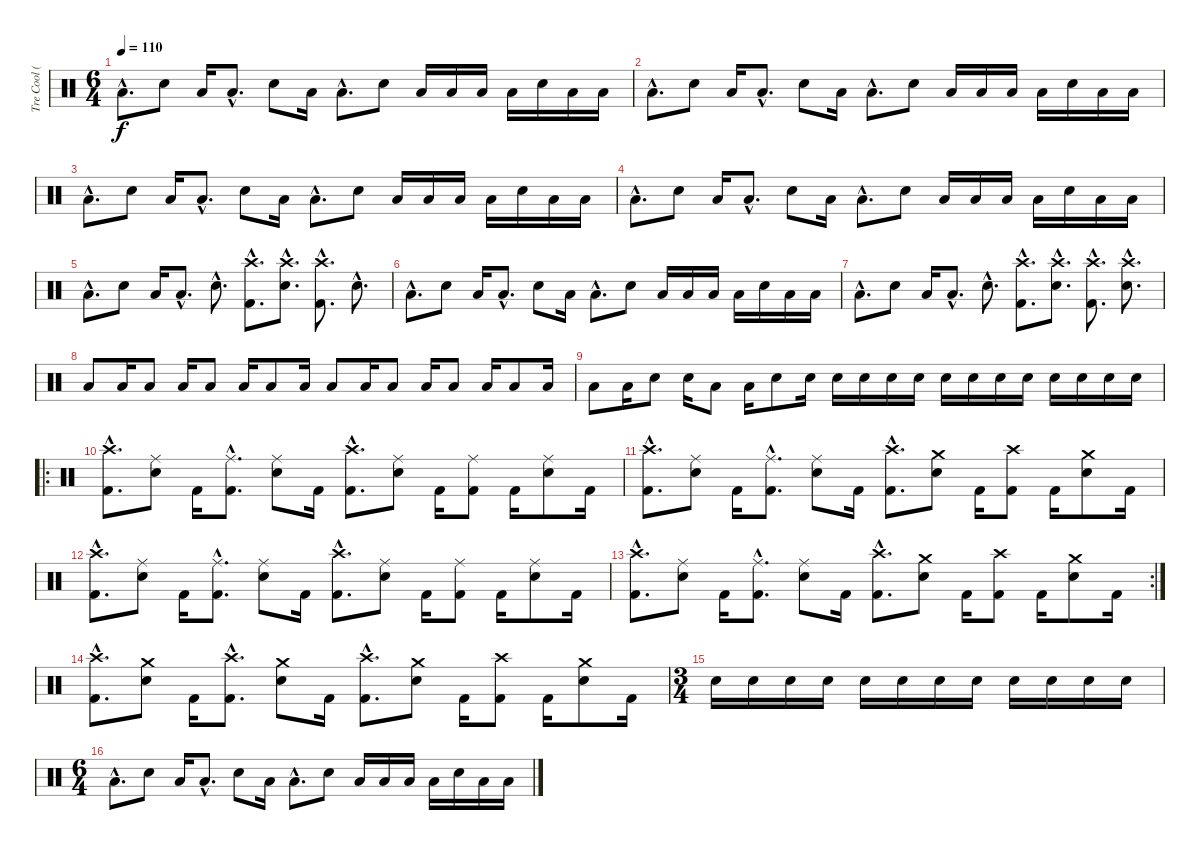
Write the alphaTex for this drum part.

\track ("Tre Cool (Drums)" "Tre Cool (") {instrument percussion}
\staff {score}
\articulation defaults
\ts (6 4)
\tempo 110
\clef neutral
\ks c "Low Floor Tom (hit)"{hac}.8{d dy f} "Electric Snare (hit)".8 "Low Floor Tom (hit)".16 "Low Floor Tom (hit)"{hac}.8{d} "Electric Snare (hit)".8 "Low Floor Tom (hit)".16 "Low Floor Tom (hit)"{hac}.8{d} "Electric Snare (hit)".8 "Low Floor Tom (hit)".16 "Low Floor Tom (hit)".16 "Low Floor Tom (hit)".16 "Low Floor Tom (hit)".16 "Electric Snare (hit)".16 "Low Floor Tom (hit)".16 "Low Floor Tom (hit)".16
|
"Low Floor Tom (hit)"{hac}.8{d} "Electric Snare (hit)".8 "Low Floor Tom (hit)".16 "Low Floor Tom (hit)"{hac}.8{d} "Electric Snare (hit)".8 "Low Floor Tom (hit)".16 "Low Floor Tom (hit)"{hac}.8{d} "Electric Snare (hit)".8 "Low Floor Tom (hit)".16 "Low Floor Tom (hit)".16 "Low Floor Tom (hit)".16 "Low Floor Tom (hit)".16 "Electric Snare (hit)".16 "Low Floor Tom (hit)".16 "Low Floor Tom (hit)".16 |
"Low Floor Tom (hit)"{hac}.8{d} "Electric Snare (hit)".8 "Low Floor Tom (hit)".16 "Low Floor Tom (hit)"{hac}.8{d} "Electric Snare (hit)".8 "Low Floor Tom (hit)".16 "Low Floor Tom (hit)"{hac}.8{d} "Electric Snare (hit)".8 "Low Floor Tom (hit)".16 "Low Floor Tom (hit)".16 "Low Floor Tom (hit)".16 "Low Floor Tom (hit)".16 "Electric Snare (hit)".16 "Low Floor Tom (hit)".16 "Low Floor Tom (hit)".16 |
"Low Floor Tom (hit)"{hac}.8{d} "Electric Snare (hit)".8 "Low Floor Tom (hit)".16 "Low Floor Tom (hit)"{hac}.8{d} "Electric Snare (hit)".8 "Low Floor Tom (hit)".16 "Low Floor Tom (hit)"{hac}.8{d} "Electric Snare (hit)".8 "Low Floor Tom (hit)".16 "Low Floor Tom (hit)".16 "Low Floor Tom (hit)".16 "Low Floor Tom (hit)".16 "Electric Snare (hit)".16 "Low Floor Tom (hit)".16 "Low Floor Tom (hit)".16 |
"Low Floor Tom (hit)"{hac}.8{d} "Electric Snare (hit)".8 "Low Floor Tom (hit)".16 "Low Floor Tom (hit)"{hac}.8{d} "Electric Snare (hit)"{hac}.8{d} ("Crash high (hit)"{hac} "Kick (hit) 2"{hac}).8{d} ("Crash high (hit)"{hac} "Electric Snare (hit)"{hac}).8{d} ("Crash high (hit)"{hac} "Kick (hit) 2"{hac}).8{d} "Electric Snare (hit)"{hac}.8{d} |
"Low Floor Tom (hit)"{hac}.8{d} "Electric Snare (hit)".8 "Low Floor Tom (hit)".16 "Low Floor Tom (hit)"{hac}.8{d} "Electric Snare (hit)".8 "Low Floor Tom (hit)".16 "Low Floor Tom (hit)"{hac}.8{d} "Electric Snare (hit)".8 "Low Floor Tom (hit)".16 "Low Floor Tom (hit)".16 "Low Floor Tom (hit)".16 "Low Floor Tom (hit)".16 "Electric Snare (hit)".16 "Low Floor Tom (hit)".16 "Low Floor Tom (hit)".16 |
"Low Floor Tom (hit)"{hac}.8{d} "Electric Snare (hit)".8 "Low Floor Tom (hit)".16 "Low Floor Tom (hit)"{hac}.8{d} "Electric Snare (hit)"{hac}.8{d} ("Crash high (hit)"{hac} "Kick (hit) 2"{hac}).8{d} ("Crash high (hit)"{hac} "Electric Snare (hit)"{hac}).8{d} ("Crash high (hit)"{hac} "Kick (hit) 2"{hac}).8{d} ("Crash high (hit)"{hac} "Electric Snare (hit)"{hac}).8{d} |
"Low Floor Tom (hit)".8 "Low Floor Tom (hit)".16 "Low Floor Tom (hit)".8 "Low Floor Tom (hit)".16 "Low Floor Tom (hit)".8 "Low Floor Tom (hit)".16 "Low Floor Tom (hit)".8 "Low Floor Tom (hit)".16 "Low Floor Tom (hit)".8 "Low Floor Tom (hit)".16 "Low Floor Tom (hit)".8 "Low Floor Tom (hit)".16 "Low Floor Tom (hit)".8 "Low Floor Tom (hit)".16 "Low Floor Tom (hit)".8 "Low Floor Tom (hit)".16 |
"Low Floor Tom (hit)".8 "Low Floor Tom (hit)".16 "Electric Snare (hit)".8 "Electric Snare (hit)".16 "Low Floor Tom (hit)".8 "Low Floor Tom (hit)".16 "Electric Snare (hit)".8 "Electric Snare (hit)".16 "Electric Snare (hit)".16 "Electric Snare (hit)".16 "Electric Snare (hit)".16 "Electric Snare (hit)".16 "Electric Snare (hit)".16 "Electric Snare (hit)".16 "Electric Snare (hit)".16 "Electric Snare (hit)".16 "Electric Snare (hit)".16 "Electric Snare (hit)".16 "Electric Snare (hit)".16 "Electric Snare (hit)".16 |
\ro
("Crash high (hit)"{hac} "Kick (hit) 2"{hac}).8{d} ("Ride (middle)" "Electric Snare (hit)").8 "Kick (hit) 2".16 ("Ride (middle)"{hac} "Kick (hit) 2"{hac}).8{d} ("Ride (middle)" "Electric Snare (hit)").8 "Kick (hit) 2".16 ("Crash high (hit)"{hac} "Kick (hit) 2"{hac}).8{d} ("Ride (middle)" "Electric Snare (hit)").8 "Kick (hit) 2".16 ("Ride (middle)" "Kick (hit) 2").8 "Kick (hit) 2".16 ("Ride (middle)" "Electric Snare (hit)").8 "Kick (hit) 2".16 |
("Crash high (hit)"{hac} "Kick (hit) 2"{hac}).8{d} ("Ride (middle)" "Electric Snare (hit)").8 "Kick (hit) 2".16 ("Ride (middle)"{hac} "Kick (hit) 2"{hac}).8{d} ("Ride (middle)" "Electric Snare (hit)").8 "Kick (hit) 2".16 ("Crash high (hit)"{hac} "Kick (hit) 2"{hac}).8{d} ("Crash medium (hit)" "Electric Snare (hit)").8 "Kick (hit) 2".16 ("Crash high (hit)" "Kick (hit) 2").8 "Kick (hit) 2".16 ("Crash medium (hit)" "Electric Snare (hit)").8 "Kick (hit) 2".16 |
("Crash high (hit)"{hac} "Kick (hit) 2"{hac}).8{d} ("Ride (middle)" "Electric Snare (hit)").8 "Kick (hit) 2".16 ("Ride (middle)"{hac} "Kick (hit) 2"{hac}).8{d} ("Ride (middle)" "Electric Snare (hit)").8 "Kick (hit) 2".16 ("Crash high (hit)"{hac} "Kick (hit) 2"{hac}).8{d} ("Ride (middle)" "Electric Snare (hit)").8 "Kick (hit) 2".16 ("Ride (middle)" "Kick (hit) 2").8 "Kick (hit) 2".16 ("Ride (middle)" "Electric Snare (hit)").8 "Kick (hit) 2".16 |
\rc 2
("Crash high (hit)"{hac} "Kick (hit) 2"{hac}).8{d} ("Ride (middle)" "Electric Snare (hit)").8 "Kick (hit) 2".16 ("Ride (middle)"{hac} "Kick (hit) 2"{hac}).8{d} ("Ride (middle)" "Electric Snare (hit)").8 "Kick (hit) 2".16 ("Crash high (hit)"{hac} "Kick (hit) 2"{hac}).8{d} ("Crash medium (hit)" "Electric Snare (hit)").8 "Kick (hit) 2".16 ("Crash high (hit)" "Kick (hit) 2").8 "Kick (hit) 2".16 ("Crash medium (hit)" "Electric Snare (hit)").8 "Kick (hit) 2".16 |
("Crash high (hit)"{hac} "Kick (hit) 2"{hac}).8{d} ("Crash medium (hit)" "Electric Snare (hit)").8 "Kick (hit) 2".16 ("Crash high (hit)"{hac} "Kick (hit) 2"{hac}).8{d} ("Crash medium (hit)" "Electric Snare (hit)").8 "Kick (hit) 2".16 ("Crash high (hit)"{hac} "Kick (hit) 2"{hac}).8{d} ("Crash medium (hit)" "Electric Snare (hit)").8 "Kick (hit) 2".16 ("Crash high (hit)" "Kick (hit) 2").8 "Kick (hit) 2".16 ("Crash medium (hit)" "Electric Snare (hit)").8 "Kick (hit) 2".16 |
\ts (3 4)
"Electric Snare (hit)".16 "Electric Snare (hit)".16 "Electric Snare (hit)".16 "Electric Snare (hit)".16 "Electric Snare (hit)".16 "Electric Snare (hit)".16 "Electric Snare (hit)".16 "Electric Snare (hit)".16 "Electric Snare (hit)".16 "Electric Snare (hit)".16 "Electric Snare (hit)".16 "Electric Snare (hit)".16 |
\ts (6 4)
"Low Floor Tom (hit)"{hac}.8{d} "Electric Snare (hit)".8 "Low Floor Tom (hit)".16 "Low Floor Tom (hit)"{hac}.8{d} "Electric Snare (hit)".8 "Low Floor Tom (hit)".16 "Low Floor Tom (hit)"{hac}.8{d} "Electric Snare (hit)".8 "Low Floor Tom (hit)".16 "Low Floor Tom (hit)".16 "Low Floor Tom (hit)".16 "Low Floor Tom (hit)".16 "Electric Snare (hit)".16 "Low Floor Tom (hit)".16 "Low Floor Tom (hit)".16
